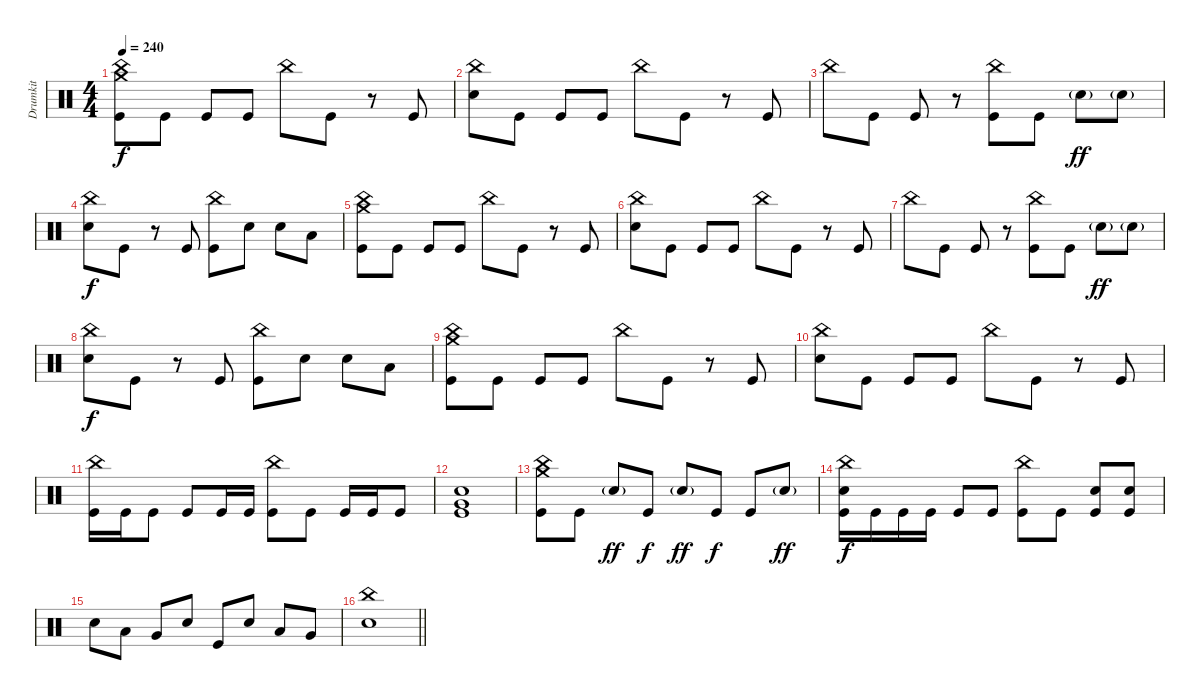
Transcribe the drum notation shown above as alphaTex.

\track ("Drumkit" "Drumkit") {instrument percussion}
\staff {score}
\articulation defaults
\ts (4 4)
\tempo 240
\clef neutral
\ks c
("Crash medium (hit)" "China (hit)" "Kick (hit)").8{dy f} "Kick (hit)".8 "Kick (hit)".8 "Kick (hit)".8 "China (hit)".8 "Kick (hit)".8 r.8 "Kick (hit)".8 |
("China (hit)" "Snare (hit) 2").8 "Kick (hit)".8 "Kick (hit)".8 "Kick (hit)".8 "China (hit)".8 "Kick (hit)".8 r.8 "Kick (hit)".8 |
"China (hit)".8 "Kick (hit)".8 "Kick (hit)".8 r.8 ("China (hit)" "Kick (hit)").8 "Kick (hit)".8 "Snare (hit) 2"{g}.8{dy ff} "Snare (hit) 2"{g}.8 |
("China (hit)" "Snare (hit) 2").8{dy f} "Kick (hit)".8 r.8 "Kick (hit)".8 ("China (hit)" "Kick (hit)").8 "Snare (hit) 2".8 "Snare (hit) 2".8 "Low Tom (hit)".8 |
("Crash medium (hit)" "China (hit)" "Kick (hit)").8 "Kick (hit)".8 "Kick (hit)".8 "Kick (hit)".8 "China (hit)".8 "Kick (hit)".8 r.8 "Kick (hit)".8 |
("China (hit)" "Snare (hit) 2").8 "Kick (hit)".8 "Kick (hit)".8 "Kick (hit)".8 "China (hit)".8 "Kick (hit)".8 r.8 "Kick (hit)".8 |
"China (hit)".8 "Kick (hit)".8 "Kick (hit)".8 r.8 ("China (hit)" "Kick (hit)").8 "Kick (hit)".8 "Snare (hit) 2"{g}.8{dy ff} "Snare (hit) 2"{g}.8 |
("China (hit)" "Snare (hit) 2").8{dy f} "Kick (hit)".8 r.8 "Kick (hit)".8 ("China (hit)" "Kick (hit)").8 "Snare (hit) 2".8 "Snare (hit) 2".8 "Low Tom (hit)".8 |
("Crash medium (hit)" "China (hit)" "Kick (hit)").8 "Kick (hit)".8 "Kick (hit)".8 "Kick (hit)".8 "China (hit)".8 "Kick (hit)".8 r.8 "Kick (hit)".8 |
("China (hit)" "Snare (hit) 2").8 "Kick (hit)".8 "Kick (hit)".8 "Kick (hit)".8 "China (hit)".8 "Kick (hit)".8 r.8 "Kick (hit)".8 |
("China (hit)" "Kick (hit)").16 "Kick (hit)".16 "Kick (hit)".8 "Kick (hit)".8 "Kick (hit)".16 "Kick (hit)".16 ("China (hit)" "Kick (hit)").8 "Kick (hit)".8 "Kick (hit)".16 "Kick (hit)".16 "Kick (hit)".8 |
("Very Low Tom (hit)" "Snare (hit) 2" "Kick (hit)").1 |
("China (hit)" "Crash medium (hit)" "Kick (hit)").8 "Kick (hit)".8 "Snare (hit) 2"{g}.8{dy ff} "Kick (hit)".8{dy f} "Snare (hit) 2"{g}.8{dy ff} "Kick (hit)".8{dy f} "Kick (hit)".8 "Snare (hit) 2"{g}.8{dy ff} |
("China (hit)" "Snare (hit) 2" "Kick (hit)").16{dy f} "Kick (hit)".16 "Kick (hit)".16 "Kick (hit)".16 "Kick (hit)".8 "Kick (hit)".8 ("China (hit)" "Kick (hit)").8 "Kick (hit)".8 ("Snare (hit) 2" "Kick (hit)").8 ("Snare (hit) 2" "Kick (hit)").8 |
"Snare (hit) 2".8 "Low Tom (hit)".8 "Very Low Tom (hit)".8 "Snare (hit) 2".8 "Kick (hit)".8 "Snare (hit) 2".8 "Low Tom (hit)".8 "Very Low Tom (hit)".8 |
\barLineRight lightlight
("China (hit)" "Snare (hit) 2").1
